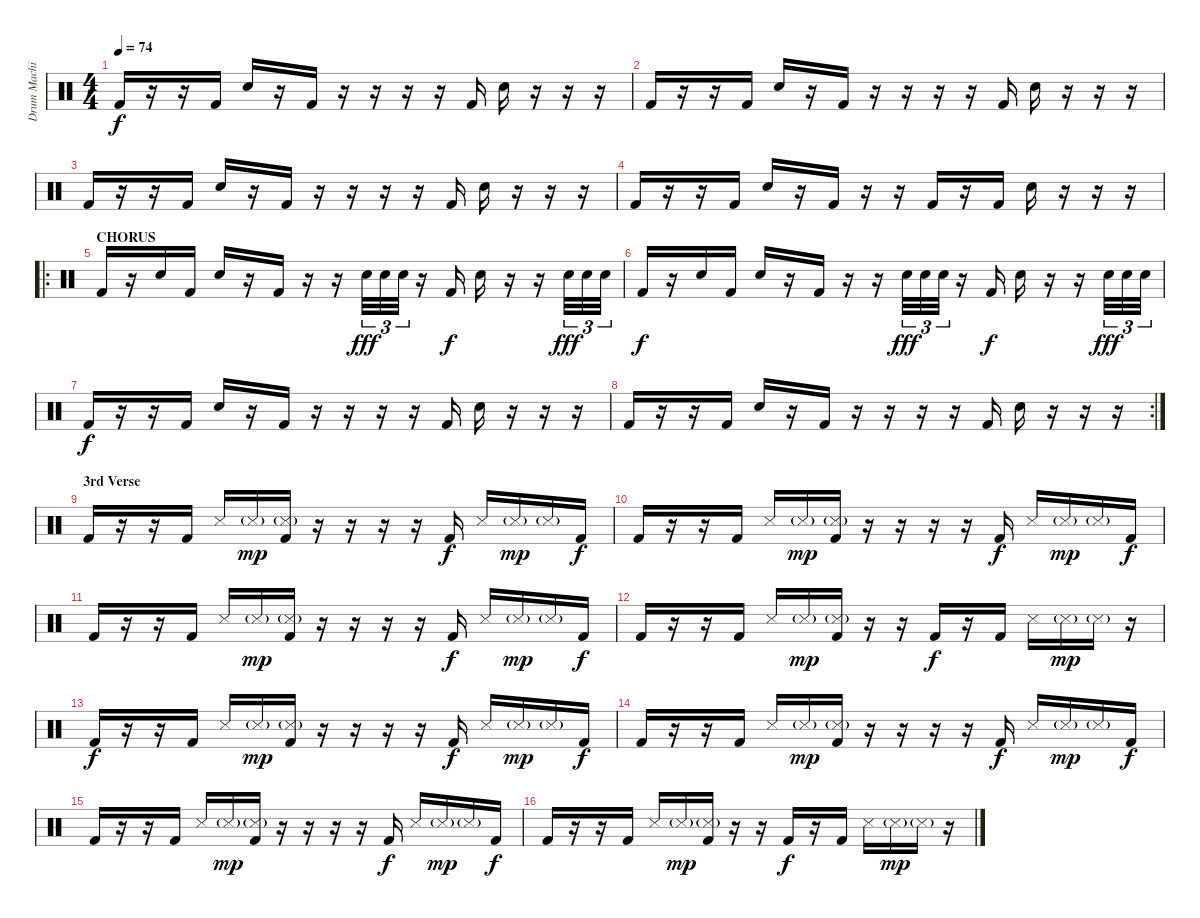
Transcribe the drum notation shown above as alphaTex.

\track ("Drum Machine" "Drum Machi") {instrument percussion}
\staff {score}
\articulation defaults
\ts (4 4)
\tempo 74
\clef neutral
\ks c "Kick (hit) 2".16{dy f}
r.16 r.16 "Kick (hit) 2".16 "Electric Snare (hit)".16 r.16 "Kick (hit) 2".16 r.16 r.16 r.16 r.16 "Kick (hit) 2".16 "Electric Snare (hit)".16 r.16 r.16 r.16 |
"Kick (hit) 2".16 r.16 r.16 "Kick (hit) 2".16 "Electric Snare (hit)".16 r.16 "Kick (hit) 2".16 r.16 r.16 r.16 r.16 "Kick (hit) 2".16 "Electric Snare (hit)".16 r.16 r.16 r.16 |
"Kick (hit) 2".16 r.16 r.16 "Kick (hit) 2".16 "Electric Snare (hit)".16 r.16 "Kick (hit) 2".16 r.16 r.16 r.16 r.16 "Kick (hit) 2".16 "Electric Snare (hit)".16 r.16 r.16 r.16 |
"Kick (hit) 2".16 r.16 r.16 "Kick (hit) 2".16 "Electric Snare (hit)".16 r.16 "Kick (hit) 2".16 r.16 r.16 "Kick (hit) 2".16 r.16 "Kick (hit) 2".16 "Electric Snare (hit)".16 r.16 r.16 r.16 |
\ro
\section ("" "CHORUS")
"Kick (hit) 2".16 r.16 "Electric Snare (hit)".16 "Kick (hit) 2".16 "Electric Snare (hit)".16 r.16 "Kick (hit) 2".16 r.16 r.16 "Electric Snare (hit)".32{tu (3 2) dy fff} "Electric Snare (hit)".32{tu (3 2)} "Electric Snare (hit)".32{tu (3 2)} r.16 "Kick (hit) 2".16{dy f} "Electric Snare (hit)".16 r.16 r.16 "Electric Snare (hit)".32{tu (3 2) dy fff} "Electric Snare (hit)".32{tu (3 2)} "Electric Snare (hit)".32{tu (3 2)} |
"Kick (hit) 2".16{dy f} r.16 "Electric Snare (hit)".16 "Kick (hit) 2".16 "Electric Snare (hit)".16 r.16 "Kick (hit) 2".16 r.16 r.16 "Electric Snare (hit)".32{tu (3 2) dy fff} "Electric Snare (hit)".32{tu (3 2)} "Electric Snare (hit)".32{tu (3 2)} r.16 "Kick (hit) 2".16{dy f} "Electric Snare (hit)".16 r.16 r.16 "Electric Snare (hit)".32{tu (3 2) dy fff} "Electric Snare (hit)".32{tu (3 2)} "Electric Snare (hit)".32{tu (3 2)} |
"Kick (hit) 2".16{dy f} r.16 r.16 "Kick (hit) 2".16 "Electric Snare (hit)".16 r.16 "Kick (hit) 2".16 r.16 r.16 r.16 r.16 "Kick (hit) 2".16 "Electric Snare (hit)".16 r.16 r.16 r.16 |
\rc 2 "Kick (hit) 2".16
r.16 r.16 "Kick (hit) 2".16 "Electric Snare (hit)".16 r.16 "Kick (hit) 2".16 r.16 r.16 r.16 r.16 "Kick (hit) 2".16 "Electric Snare (hit)".16 r.16 r.16 r.16 |
\section ("" "3rd Verse")
"Kick (hit) 2".16 r.16 r.16 "Kick (hit) 2".16 "Metronome (hit)".16 "Metronome (hit)"{g}.16{dy mp} ("Metronome (hit)"{g} "Kick (hit) 2").16 r.16 r.16 r.16 r.16 "Kick (hit) 2".16{dy f} "Metronome (hit)".16 "Metronome (hit)"{g}.16{dy mp} "Metronome (hit)"{g}.16 "Kick (hit) 2".16{dy f} |
"Kick (hit) 2".16 r.16 r.16 "Kick (hit) 2".16 "Metronome (hit)".16 "Metronome (hit)"{g}.16{dy mp} ("Metronome (hit)"{g} "Kick (hit) 2").16 r.16 r.16 r.16 r.16 "Kick (hit) 2".16{dy f} "Metronome (hit)".16 "Metronome (hit)"{g}.16{dy mp} "Metronome (hit)"{g}.16 "Kick (hit) 2".16{dy f} |
"Kick (hit) 2".16 r.16 r.16 "Kick (hit) 2".16 "Metronome (hit)".16 "Metronome (hit)"{g}.16{dy mp} ("Metronome (hit)"{g} "Kick (hit) 2").16 r.16 r.16 r.16 r.16 "Kick (hit) 2".16{dy f} "Metronome (hit)".16 "Metronome (hit)"{g}.16{dy mp} "Metronome (hit)"{g}.16 "Kick (hit) 2".16{dy f} |
"Kick (hit) 2".16 r.16 r.16 "Kick (hit) 2".16 "Metronome (hit)".16 "Metronome (hit)"{g}.16{dy mp} ("Metronome (hit)"{g} "Kick (hit) 2").16 r.16 r.16 "Kick (hit) 2".16{dy f} r.16 "Kick (hit) 2".16 "Metronome (hit)".16 "Metronome (hit)"{g}.16{dy mp} "Metronome (hit)"{g}.16 r.16 |
"Kick (hit) 2".16{dy f} r.16 r.16 "Kick (hit) 2".16 "Metronome (hit)".16 "Metronome (hit)"{g}.16{dy mp} ("Metronome (hit)"{g} "Kick (hit) 2").16 r.16 r.16 r.16 r.16 "Kick (hit) 2".16{dy f} "Metronome (hit)".16 "Metronome (hit)"{g}.16{dy mp} "Metronome (hit)"{g}.16 "Kick (hit) 2".16{dy f} |
"Kick (hit) 2".16 r.16 r.16 "Kick (hit) 2".16 "Metronome (hit)".16 "Metronome (hit)"{g}.16{dy mp} ("Metronome (hit)"{g} "Kick (hit) 2").16 r.16 r.16 r.16 r.16 "Kick (hit) 2".16{dy f} "Metronome (hit)".16 "Metronome (hit)"{g}.16{dy mp} "Metronome (hit)"{g}.16 "Kick (hit) 2".16{dy f} |
"Kick (hit) 2".16 r.16 r.16 "Kick (hit) 2".16 "Metronome (hit)".16 "Metronome (hit)"{g}.16{dy mp} ("Metronome (hit)"{g} "Kick (hit) 2").16 r.16 r.16 r.16 r.16 "Kick (hit) 2".16{dy f} "Metronome (hit)".16 "Metronome (hit)"{g}.16{dy mp} "Metronome (hit)"{g}.16 "Kick (hit) 2".16{dy f} |
"Kick (hit) 2".16 r.16 r.16 "Kick (hit) 2".16 "Metronome (hit)".16 "Metronome (hit)"{g}.16{dy mp} ("Metronome (hit)"{g} "Kick (hit) 2").16 r.16 r.16 "Kick (hit) 2".16{dy f} r.16 "Kick (hit) 2".16 "Metronome (hit)".16 "Metronome (hit)"{g}.16{dy mp} "Metronome (hit)"{g}.16 r.16
